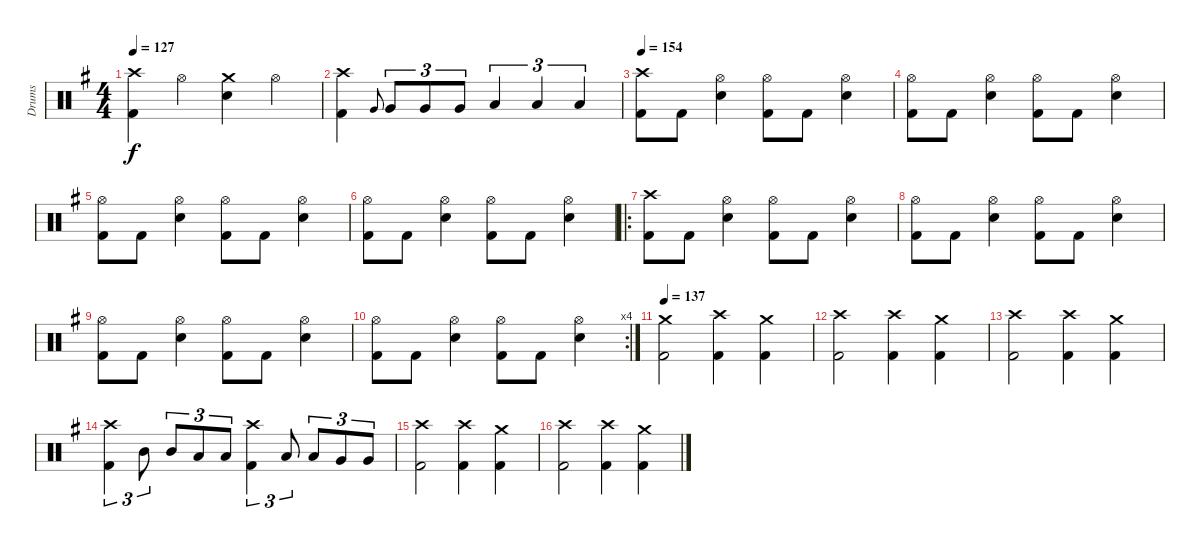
\track ("Drums" "Drums") {mute instrument percussion}
\staff {score}
\articulation defaults
\ts (4 4)
\tempo 127
\clef neutral
\ks g
("Crash high (hit)" "Kick (hit) 2").4{dy f} "Hi-Hat (open)".4 ("Crash medium (hit)" "Snare (hit) 2").4 "Hi-Hat (open)".4 |
("Crash high (hit)" "Kick (hit) 2").4 "Very Low Tom (hit)".8{gr onbeat} "Very Low Tom (hit)".8{tu (3 2)} "Very Low Tom (hit)".8{tu (3 2)} "Very Low Tom (hit)".8{tu (3 2)} "Low Floor Tom (hit)".4{tu (3 2)} "Low Floor Tom (hit)".4{tu (3 2)} "Low Floor Tom (hit)".4{tu (3 2)} |
\tempo 154
("Crash high (hit)" "Kick (hit) 2").8 "Kick (hit) 2".8 ("Hi-Hat (open)" "Snare (hit) 2").4 ("Hi-Hat (open)" "Kick (hit) 2").8 "Kick (hit) 2".8 ("Hi-Hat (open)" "Snare (hit) 2").4 |
("Hi-Hat (open)" "Kick (hit) 2").8 "Kick (hit) 2".8 ("Hi-Hat (open)" "Snare (hit) 2").4 ("Hi-Hat (open)" "Kick (hit) 2").8 "Kick (hit) 2".8 ("Hi-Hat (open)" "Snare (hit) 2").4 |
("Hi-Hat (open)" "Kick (hit) 2").8 "Kick (hit) 2".8 ("Hi-Hat (open)" "Snare (hit) 2").4 ("Hi-Hat (open)" "Kick (hit) 2").8 "Kick (hit) 2".8 ("Hi-Hat (open)" "Snare (hit) 2").4 |
("Hi-Hat (open)" "Kick (hit) 2").8 "Kick (hit) 2".8 ("Hi-Hat (open)" "Snare (hit) 2").4 ("Hi-Hat (open)" "Kick (hit) 2").8 "Kick (hit) 2".8 ("Hi-Hat (open)" "Snare (hit) 2").4 |
\ro
("Crash high (hit)" "Kick (hit) 2").8 "Kick (hit) 2".8 ("Hi-Hat (open)" "Snare (hit) 2").4 ("Hi-Hat (open)" "Kick (hit) 2").8 "Kick (hit) 2".8 ("Hi-Hat (open)" "Snare (hit) 2").4 |
("Hi-Hat (open)" "Kick (hit) 2").8 "Kick (hit) 2".8 ("Hi-Hat (open)" "Snare (hit) 2").4 ("Hi-Hat (open)" "Kick (hit) 2").8 "Kick (hit) 2".8 ("Hi-Hat (open)" "Snare (hit) 2").4 |
("Hi-Hat (open)" "Kick (hit) 2").8 "Kick (hit) 2".8 ("Hi-Hat (open)" "Snare (hit) 2").4 ("Hi-Hat (open)" "Kick (hit) 2").8 "Kick (hit) 2".8 ("Hi-Hat (open)" "Snare (hit) 2").4 |
\rc 4
("Hi-Hat (open)" "Kick (hit) 2").8 "Kick (hit) 2".8 ("Hi-Hat (open)" "Snare (hit) 2").4 ("Hi-Hat (open)" "Kick (hit) 2").8 "Kick (hit) 2".8 ("Hi-Hat (open)" "Snare (hit) 2").4 |
\tempo 137
("Crash medium (hit)" "Kick (hit) 2").2 ("Crash high (hit)" "Kick (hit) 2").4 ("Crash medium (hit)" "Kick (hit) 2").4 |
("Crash high (hit)" "Kick (hit) 2").2 ("Crash high (hit)" "Kick (hit) 2").4 ("Crash medium (hit)" "Kick (hit) 2").4 |
("Crash high (hit)" "Kick (hit) 2").2 ("Crash high (hit)" "Kick (hit) 2").4 ("Crash medium (hit)" "Kick (hit) 2").4 |
("Crash high (hit)" "Kick (hit) 2").4{tu (3 2)} "Mid Tom (hit)".8{tu (3 2)} "Mid Tom (hit)".8{tu (3 2)} "Low Tom (hit)".8{tu (3 2)} "Low Tom (hit)".8{tu (3 2)} ("Crash high (hit)" "Kick (hit) 2").4{tu (3 2)} "Low Tom (hit)".8{tu (3 2)} "Low Tom (hit)".8{tu (3 2)} "Very Low Tom (hit)".8{tu (3 2)} "Very Low Tom (hit)".8{tu (3 2)} |
("Crash high (hit)" "Kick (hit) 2").2 ("Crash high (hit)" "Kick (hit) 2").4 ("Crash medium (hit)" "Kick (hit) 2").4 |
("Crash high (hit)" "Kick (hit) 2").2 ("Crash high (hit)" "Kick (hit) 2").4 ("Crash medium (hit)" "Kick (hit) 2").4
